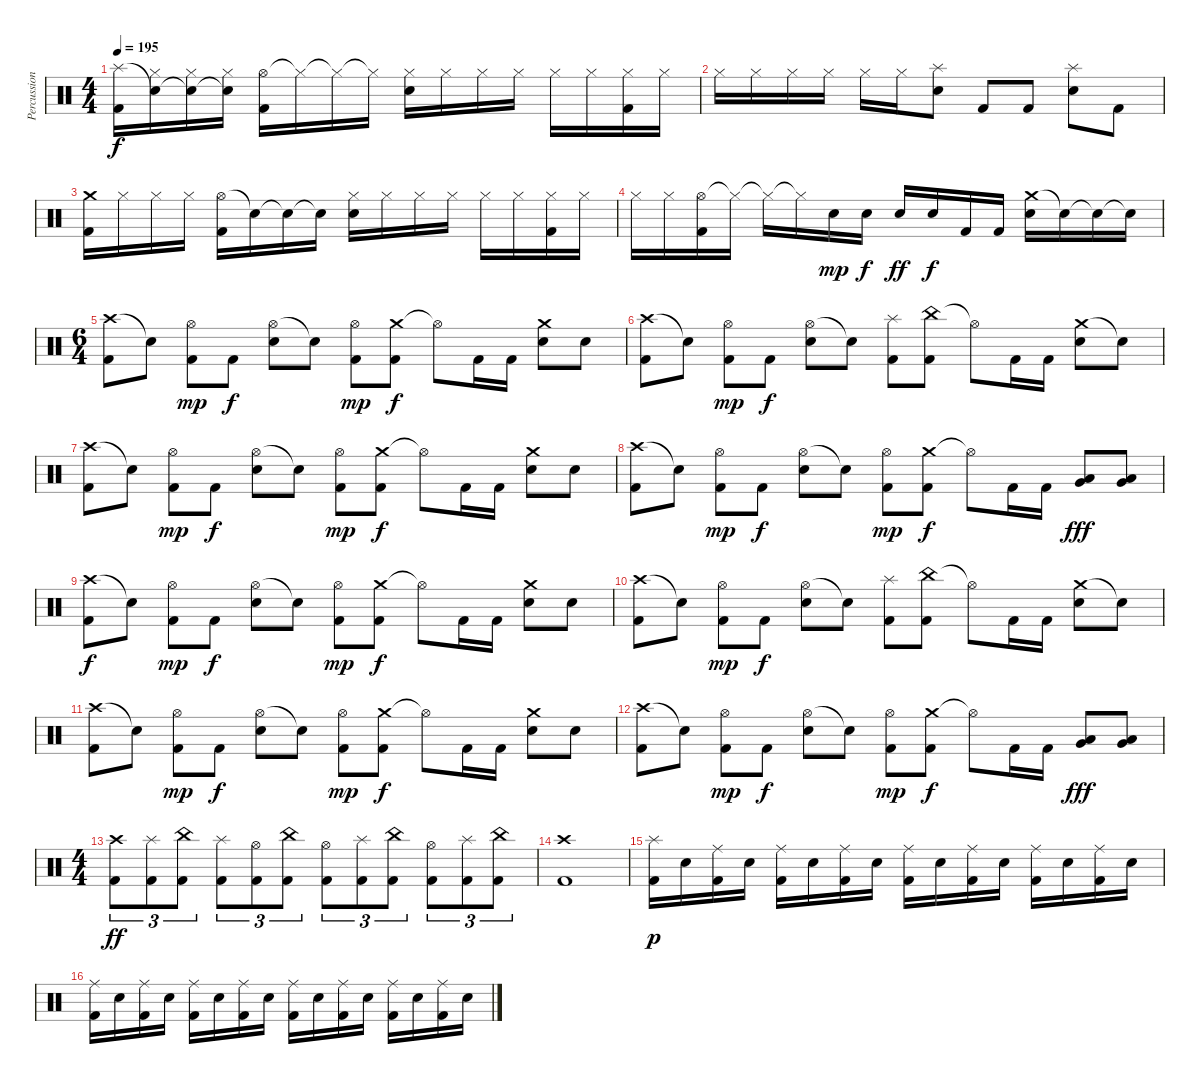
\track ("Percussion" "Percussion") {instrument percussion}
\staff {score}
\articulation defaults
\ts (4 4)
\tempo 195
\clef neutral
\ks c
("Splash (hit)" "Kick (hit) 2").16{dy f} ("Snare (hit)"{t} "Hi-Hat (closed)").16 ("Snare (hit)"{t} "Hi-Hat (closed)").16 ("Snare (hit)"{t} "Hi-Hat (closed)").16 ("Hi-Hat (open)" "Kick (hit) 2").16 "Hi-Hat (closed)"{t}.16 "Hi-Hat (closed)"{t}.16 "Hi-Hat (closed)"{t}.16 ("Hi-Hat (closed)" "Snare (hit) 2").16 "Hi-Hat (closed)".16 "Hi-Hat (closed)".16 "Hi-Hat (closed)".16 "Hi-Hat (closed)".16 "Hi-Hat (closed)".16 ("Hi-Hat (closed)" "Kick (hit) 2").16 "Hi-Hat (closed)".16 |
"Hi-Hat (closed)".16 "Hi-Hat (closed)".16 "Hi-Hat (closed)".16 "Hi-Hat (closed)".16 "Hi-Hat (closed)".16 "Hi-Hat (closed)".16 ("Splash (hit)" "Snare (hit) 2").8 "Kick (hit) 2".8 "Kick (hit) 2".8 ("Splash (hit)" "Snare (hit) 2").8 "Kick (hit) 2".8 |
("Crash medium (hit)" "Kick (hit) 2").16 "Hi-Hat (closed)".16 "Hi-Hat (closed)".16 "Hi-Hat (closed)".16 ("Hi-Hat (open)" "Kick (hit) 2").16 "Snare (hit)"{t}.16 "Snare (hit)"{t}.16 "Snare (hit)"{t}.16 ("Hi-Hat (closed)" "Snare (hit) 2").16 "Hi-Hat (closed)".16 "Hi-Hat (closed)".16 "Hi-Hat (closed)".16 "Hi-Hat (closed)".16 "Hi-Hat (closed)".16 ("Hi-Hat (closed)" "Kick (hit) 2").16 "Hi-Hat (closed)".16 |
"Hi-Hat (closed)".16 "Hi-Hat (closed)".16 ("Hi-Hat (open)" "Kick (hit) 2").16 "Hi-Hat (closed)"{t}.16 "Hi-Hat (closed)"{t}.16 "Hi-Hat (closed)"{t}.16 "Snare (hit) 2".16{dy mp} "Snare (hit) 2".16{dy f} "Snare (hit) 2".16{dy ff} "Snare (hit) 2".16{dy f} "Kick (hit) 2".16 "Kick (hit) 2".16 ("Crash medium (hit)" "Snare (hit) 2").16 "Snare (hit)"{t}.16 "Snare (hit)"{t}.16 "Snare (hit)"{t}.16 |
\ts (6 4)
("Crash high (hit)" "Kick (hit) 2").8 "Snare (hit)"{t}.8 ("Hi-Hat (open)" "Kick (hit) 2").8{dy mp} "Kick (hit) 2".8{dy f} ("Hi-Hat (open)" "Snare (hit) 2").8 "Snare (hit)"{t}.8 ("Hi-Hat (open)" "Kick (hit) 2").8{dy mp} ("Crash medium (hit)" "Kick (hit) 2").8{dy f} "Hi-Hat (open)"{t}.8 "Kick (hit) 2".16 "Kick (hit) 2".16 ("Crash medium (hit)" "Snare (hit) 2").8 "Snare (hit) 2".8 |
("Crash high (hit)" "Kick (hit) 2").8 "Snare (hit)"{t}.8 ("Hi-Hat (open)" "Kick (hit) 2").8{dy mp} "Kick (hit) 2".8{dy f} ("Hi-Hat (open)" "Snare (hit) 2").8 "Snare (hit)"{t}.8 ("Splash (hit)" "Kick (hit) 2").8 ("China (hit)" "Kick (hit) 2").8 "Hi-Hat (open)"{t}.8 "Kick (hit) 2".16 "Kick (hit) 2".16 ("Crash medium (hit)" "Snare (hit) 2").8 "Snare (hit) 2"{t}.8 |
("Crash high (hit)" "Kick (hit) 2").8 "Snare (hit)"{t}.8 ("Hi-Hat (open)" "Kick (hit) 2").8{dy mp} "Kick (hit) 2".8{dy f} ("Hi-Hat (open)" "Snare (hit) 2").8 "Snare (hit)"{t}.8 ("Hi-Hat (open)" "Kick (hit) 2").8{dy mp} ("Crash medium (hit)" "Kick (hit) 2").8{dy f} "Hi-Hat (open)"{t}.8 "Kick (hit) 2".16 "Kick (hit) 2".16 ("Crash medium (hit)" "Snare (hit) 2").8 "Snare (hit) 2".8 |
("Crash high (hit)" "Kick (hit) 2").8 "Snare (hit)"{t}.8 ("Hi-Hat (open)" "Kick (hit) 2").8{dy mp} "Kick (hit) 2".8{dy f} ("Hi-Hat (open)" "Snare (hit) 2").8 "Snare (hit)"{t}.8 ("Hi-Hat (open)" "Kick (hit) 2").8{dy mp} ("Crash medium (hit)" "Kick (hit) 2").8{dy f} "Hi-Hat (open)"{t}.8 "Kick (hit) 2".16 "Kick (hit) 2".16 ("Very Low Tom (hit)" "Low Floor Tom (hit)").8{dy fff} ("Very Low Tom (hit)" "Low Floor Tom (hit)").8 |
("Crash high (hit)" "Kick (hit) 2").8{dy f} "Snare (hit)"{t}.8 ("Hi-Hat (open)" "Kick (hit) 2").8{dy mp} "Kick (hit) 2".8{dy f} ("Hi-Hat (open)" "Snare (hit) 2").8 "Snare (hit)"{t}.8 ("Hi-Hat (open)" "Kick (hit) 2").8{dy mp} ("Crash medium (hit)" "Kick (hit) 2").8{dy f} "Hi-Hat (open)"{t}.8 "Kick (hit) 2".16 "Kick (hit) 2".16 ("Crash medium (hit)" "Snare (hit) 2").8 "Snare (hit) 2".8 |
("Crash high (hit)" "Kick (hit) 2").8 "Snare (hit)"{t}.8 ("Hi-Hat (open)" "Kick (hit) 2").8{dy mp} "Kick (hit) 2".8{dy f} ("Hi-Hat (open)" "Snare (hit) 2").8 "Snare (hit)"{t}.8 ("Splash (hit)" "Kick (hit) 2").8 ("China (hit)" "Kick (hit) 2").8 "Hi-Hat (open)"{t}.8 "Kick (hit) 2".16 "Kick (hit) 2".16 ("Crash medium (hit)" "Snare (hit) 2").8 "Snare (hit) 2"{t}.8 |
("Crash high (hit)" "Kick (hit) 2").8 "Snare (hit)"{t}.8 ("Hi-Hat (open)" "Kick (hit) 2").8{dy mp} "Kick (hit) 2".8{dy f} ("Hi-Hat (open)" "Snare (hit) 2").8 "Snare (hit)"{t}.8 ("Hi-Hat (open)" "Kick (hit) 2").8{dy mp} ("Crash medium (hit)" "Kick (hit) 2").8{dy f} "Hi-Hat (open)"{t}.8 "Kick (hit) 2".16 "Kick (hit) 2".16 ("Crash medium (hit)" "Snare (hit) 2").8 "Snare (hit) 2".8 |
("Crash high (hit)" "Kick (hit) 2").8 "Snare (hit)"{t}.8 ("Hi-Hat (open)" "Kick (hit) 2").8{dy mp} "Kick (hit) 2".8{dy f} ("Hi-Hat (open)" "Snare (hit) 2").8 "Snare (hit)"{t}.8 ("Hi-Hat (open)" "Kick (hit) 2").8{dy mp} ("Crash medium (hit)" "Kick (hit) 2").8{dy f} "Hi-Hat (open)"{t}.8 "Kick (hit) 2".16 "Kick (hit) 2".16 ("Very Low Tom (hit)" "Low Floor Tom (hit)").8{dy fff} ("Very Low Tom (hit)" "Low Floor Tom (hit)").8 |
\ts (4 4)
("Crash high (hit)" "Kick (hit) 2").8{tu (3 2) dy ff} ("Splash (hit)" "Kick (hit) 2").8{tu (3 2)} ("China (hit)" "Kick (hit) 2").8{tu (3 2)} ("Splash (hit)" "Kick (hit) 2").8{tu (3 2)} ("Hi-Hat (open)" "Kick (hit) 2").8{tu (3 2)} ("China (hit)" "Kick (hit) 2").8{tu (3 2)} ("Hi-Hat (open)" "Kick (hit) 2").8{tu (3 2)} ("Splash (hit)" "Kick (hit) 2").8{tu (3 2)} ("China (hit)" "Kick (hit) 2").8{tu (3 2)} ("Hi-Hat (open)" "Kick (hit) 2").8{tu (3 2)} ("Splash (hit)" "Kick (hit) 2").8{tu (3 2)} ("China (hit)" "Kick (hit) 2").8{tu (3 2)} |
("Crash high (hit)" "Kick (hit) 2").1 |
("Splash (hit)" "Kick (hit) 2").16{dy p} "Snare (hit) 2".16 ("Ride (middle)" "Kick (hit) 2").16 "Snare (hit) 2".16 ("Ride (middle)" "Kick (hit) 2").16 "Snare (hit) 2".16 ("Ride (middle)" "Kick (hit) 2").16 "Snare (hit) 2".16 ("Ride (middle)" "Kick (hit) 2").16 "Snare (hit) 2".16 ("Ride (middle)" "Kick (hit) 2").16 "Snare (hit) 2".16 ("Ride (middle)" "Kick (hit) 2").16 "Snare (hit) 2".16 ("Ride (middle)" "Kick (hit) 2").16 "Snare (hit) 2".16 |
("Ride (middle)" "Kick (hit) 2").16 "Snare (hit) 2".16 ("Ride (middle)" "Kick (hit) 2").16 "Snare (hit) 2".16 ("Ride (middle)" "Kick (hit) 2").16 "Snare (hit) 2".16 ("Ride (middle)" "Kick (hit) 2").16 "Snare (hit) 2".16 ("Ride (middle)" "Kick (hit) 2").16 "Snare (hit) 2".16 ("Ride (middle)" "Kick (hit) 2").16 "Snare (hit) 2".16 ("Ride (middle)" "Kick (hit) 2").16 "Snare (hit) 2".16 ("Ride (middle)" "Kick (hit) 2").16 "Snare (hit) 2".16
